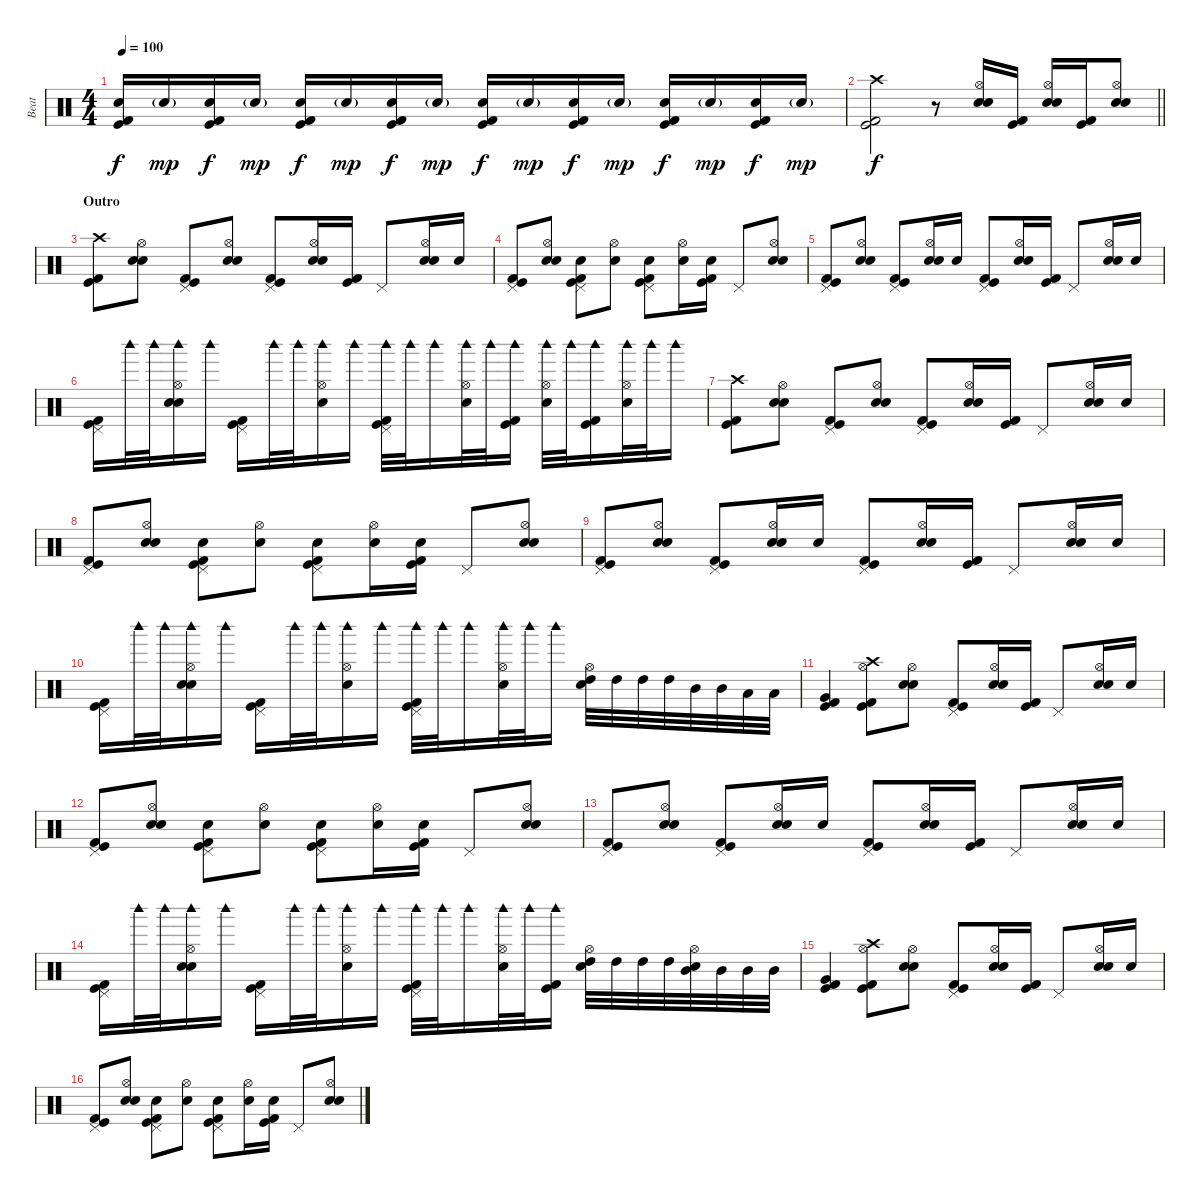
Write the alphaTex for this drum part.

\track ("Beat" "Beat") {instrument percussion}
\staff {score}
\articulation defaults
\ts (4 4)
\tempo 100
\clef neutral
\ks c
("Hand Clap (hit)" "Kick (hit)" "Kick (hit) 2").16{dy f} "Hand Clap (hit)"{g}.16{dy mp} ("Hand Clap (hit)" "Kick (hit)" "Kick (hit) 2").16{dy f} "Hand Clap (hit)"{g}.16{dy mp} ("Hand Clap (hit)" "Kick (hit)" "Kick (hit) 2").16{dy f} "Hand Clap (hit)"{g}.16{dy mp} ("Hand Clap (hit)" "Kick (hit)" "Kick (hit) 2").16{dy f} "Hand Clap (hit)"{g}.16{dy mp} ("Hand Clap (hit)" "Kick (hit)" "Kick (hit) 2").16{dy f} "Hand Clap (hit)"{g}.16{dy mp} ("Hand Clap (hit)" "Kick (hit)" "Kick (hit) 2").16{dy f} "Hand Clap (hit)"{g}.16{dy mp} ("Hand Clap (hit)" "Kick (hit)" "Kick (hit) 2").16{dy f} "Hand Clap (hit)"{g}.16{dy mp} ("Hand Clap (hit)" "Kick (hit)" "Kick (hit) 2").16{dy f} "Hand Clap (hit)"{g}.16{dy mp} |
\barLineRight lightlight
("Crash high (hit)" "Kick (hit)" "Kick (hit) 2").2{dy f} r.8 ("Hi-Hat (open)" "Hand Clap (hit)" "Snare (hit) 2").16 ("Kick (hit)" "Kick (hit) 2").16 ("Hi-Hat (open)" "Hand Clap (hit)" "Snare (hit) 2").16 ("Kick (hit)" "Kick (hit) 2").16 ("Hi-Hat (open)" "Hand Clap (hit)" "Snare (hit) 2").8 |
\section ("" "Outro")
("Crash high (hit)" "Kick (hit)" "Kick (hit) 2").8 ("Hi-Hat (open)" "Hand Clap (hit)" "Snare (hit) 2").8 ("Pedal Hi-Hat (hit)" "Kick (hit)" "Kick (hit) 2").8 ("Hi-Hat (open)" "Hand Clap (hit)" "Snare (hit) 2").8 ("Pedal Hi-Hat (hit)" "Kick (hit)" "Kick (hit) 2").8 ("Hi-Hat (open)" "Hand Clap (hit)" "Snare (hit) 2").16 ("Kick (hit)" "Kick (hit) 2").16 "Pedal Hi-Hat (hit)".8 ("Hi-Hat (open)" "Hand Clap (hit)" "Snare (hit) 2").16 "Hand Clap (hit)".16 |
("Pedal Hi-Hat (hit)" "Kick (hit)" "Kick (hit) 2").8 ("Hi-Hat (open)" "Hand Clap (hit)" "Snare (hit) 2").8 ("Pedal Hi-Hat (hit)" "Hand Clap (hit)" "Kick (hit)" "Kick (hit) 2").8 ("Hi-Hat (open)" "Snare (hit) 2").8 ("Pedal Hi-Hat (hit)" "Hand Clap (hit)" "Kick (hit)" "Kick (hit) 2").8 ("Hi-Hat (open)" "Snare (hit) 2").16 ("Hand Clap (hit)" "Kick (hit)" "Kick (hit) 2").16 "Pedal Hi-Hat (hit)".8 ("Hi-Hat (open)" "Hand Clap (hit)" "Snare (hit) 2").8 |
("Pedal Hi-Hat (hit)" "Kick (hit)" "Kick (hit) 2").8 ("Hi-Hat (open)" "Hand Clap (hit)" "Snare (hit) 2").8 ("Pedal Hi-Hat (hit)" "Kick (hit)" "Kick (hit) 2").8 ("Hi-Hat (open)" "Hand Clap (hit)" "Snare (hit) 2").16 "Hand Clap (hit)".16 ("Pedal Hi-Hat (hit)" "Kick (hit)" "Kick (hit) 2").8 ("Hi-Hat (open)" "Hand Clap (hit)" "Snare (hit) 2").16 ("Kick (hit)" "Kick (hit) 2").16 "Pedal Hi-Hat (hit)".8 ("Hi-Hat (open)" "Hand Clap (hit)" "Snare (hit) 2").16 "Hand Clap (hit)".16 |
("Pedal Hi-Hat (hit)" "Kick (hit)" "Kick (hit) 2").16 "Woodblock high (hit)".32 "Woodblock high (hit)".32 ("Hi-Hat (open)" "Woodblock high (hit)" "Snare (hit) 2" "Hand Clap (hit)").16 "Woodblock high (hit)".16 ("Pedal Hi-Hat (hit)" "Kick (hit)" "Kick (hit) 2").16 "Woodblock high (hit)".32 "Woodblock high (hit)".32 ("Hi-Hat (open)" "Woodblock high (hit)" "Snare (hit) 2").16 "Woodblock high (hit)".16 ("Pedal Hi-Hat (hit)" "Woodblock high (hit)" "Kick (hit)" "Kick (hit) 2").32 "Woodblock high (hit)".32 "Woodblock high (hit)".16 ("Hi-Hat (open)" "Woodblock high (hit)" "Snare (hit) 2").32 "Woodblock high (hit)".32 ("Woodblock high (hit)" "Kick (hit)" "Kick (hit) 2").16 ("Hi-Hat (open)" "Woodblock high (hit)" "Snare (hit) 2").32 "Woodblock high (hit)".32 ("Woodblock high (hit)" "Kick (hit)" "Kick (hit) 2").16 ("Hi-Hat (open)" "Woodblock high (hit)" "Snare (hit) 2").32 "Woodblock high (hit)".32 "Woodblock high (hit)".16 |
("Crash high (hit)" "Kick (hit)" "Kick (hit) 2").8 ("Hi-Hat (open)" "Hand Clap (hit)" "Snare (hit) 2").8 ("Pedal Hi-Hat (hit)" "Kick (hit)" "Kick (hit) 2").8 ("Hi-Hat (open)" "Hand Clap (hit)" "Snare (hit) 2").8 ("Pedal Hi-Hat (hit)" "Kick (hit)" "Kick (hit) 2").8 ("Hi-Hat (open)" "Hand Clap (hit)" "Snare (hit) 2").16 ("Kick (hit)" "Kick (hit) 2").16 "Pedal Hi-Hat (hit)".8 ("Hi-Hat (open)" "Hand Clap (hit)" "Snare (hit) 2").16 "Hand Clap (hit)".16 |
("Pedal Hi-Hat (hit)" "Kick (hit)" "Kick (hit) 2").8 ("Hi-Hat (open)" "Hand Clap (hit)" "Snare (hit) 2").8 ("Pedal Hi-Hat (hit)" "Hand Clap (hit)" "Kick (hit)" "Kick (hit) 2").8 ("Hi-Hat (open)" "Snare (hit) 2").8 ("Pedal Hi-Hat (hit)" "Hand Clap (hit)" "Kick (hit)" "Kick (hit) 2").8 ("Hi-Hat (open)" "Snare (hit) 2").16 ("Hand Clap (hit)" "Kick (hit)" "Kick (hit) 2").16 "Pedal Hi-Hat (hit)".8 ("Hi-Hat (open)" "Hand Clap (hit)" "Snare (hit) 2").8 |
("Pedal Hi-Hat (hit)" "Kick (hit)" "Kick (hit) 2").8 ("Hi-Hat (open)" "Hand Clap (hit)" "Snare (hit) 2").8 ("Pedal Hi-Hat (hit)" "Kick (hit)" "Kick (hit) 2").8 ("Hi-Hat (open)" "Hand Clap (hit)" "Snare (hit) 2").16 "Hand Clap (hit)".16 ("Pedal Hi-Hat (hit)" "Kick (hit)" "Kick (hit) 2").8 ("Hi-Hat (open)" "Hand Clap (hit)" "Snare (hit) 2").16 ("Kick (hit)" "Kick (hit) 2").16 "Pedal Hi-Hat (hit)".8 ("Hi-Hat (open)" "Hand Clap (hit)" "Snare (hit) 2").16 "Hand Clap (hit)".16 |
("Pedal Hi-Hat (hit)" "Kick (hit)" "Kick (hit) 2").16 "Woodblock high (hit)".32 "Woodblock high (hit)".32 ("Hi-Hat (open)" "Woodblock high (hit)" "Snare (hit) 2" "Hand Clap (hit)").16 "Woodblock high (hit)".16 ("Pedal Hi-Hat (hit)" "Kick (hit)" "Kick (hit) 2").16 "Woodblock high (hit)".32 "Woodblock high (hit)".32 ("Hi-Hat (open)" "Woodblock high (hit)" "Snare (hit) 2").16 "Woodblock high (hit)".16 ("Pedal Hi-Hat (hit)" "Woodblock high (hit)" "Kick (hit)" "Kick (hit) 2").32 "Woodblock high (hit)".32 "Woodblock high (hit)".16 ("Hi-Hat (open)" "Woodblock high (hit)" "Snare (hit) 2").32 "Woodblock high (hit)".32 "Woodblock high (hit)".16 ("Hi-Hat (open)" "High Tom (hit)" "Snare (hit) 2").32 "High Tom (hit)".32 "High Tom (hit)".32 "High Tom (hit)".32 "Mid Tom (hit)".32 "Mid Tom (hit)".32 "Low Tom (hit)".32 "Low Tom (hit)".32 |
("Very Low Tom (hit)" "Kick (hit)" "Kick (hit) 2").4 ("Crash high (hit)" "Hi-Hat (open)" "Kick (hit)" "Kick (hit) 2").8 ("Hi-Hat (open)" "Hand Clap (hit)" "Snare (hit) 2").8 ("Pedal Hi-Hat (hit)" "Kick (hit)" "Kick (hit) 2").8 ("Hi-Hat (open)" "Hand Clap (hit)" "Snare (hit) 2").16 ("Kick (hit)" "Kick (hit) 2").16 "Pedal Hi-Hat (hit)".8 ("Hi-Hat (open)" "Hand Clap (hit)" "Snare (hit) 2").16 "Hand Clap (hit)".16 |
("Pedal Hi-Hat (hit)" "Kick (hit)" "Kick (hit) 2").8 ("Hi-Hat (open)" "Hand Clap (hit)" "Snare (hit) 2").8 ("Pedal Hi-Hat (hit)" "Hand Clap (hit)" "Kick (hit)" "Kick (hit) 2").8 ("Hi-Hat (open)" "Snare (hit) 2").8 ("Pedal Hi-Hat (hit)" "Hand Clap (hit)" "Kick (hit)" "Kick (hit) 2").8 ("Hi-Hat (open)" "Snare (hit) 2").16 ("Hand Clap (hit)" "Kick (hit)" "Kick (hit) 2").16 "Pedal Hi-Hat (hit)".8 ("Hi-Hat (open)" "Hand Clap (hit)" "Snare (hit) 2").8 |
("Pedal Hi-Hat (hit)" "Kick (hit)" "Kick (hit) 2").8 ("Hi-Hat (open)" "Hand Clap (hit)" "Snare (hit) 2").8 ("Pedal Hi-Hat (hit)" "Kick (hit)" "Kick (hit) 2").8 ("Hi-Hat (open)" "Hand Clap (hit)" "Snare (hit) 2").16 "Hand Clap (hit)".16 ("Pedal Hi-Hat (hit)" "Kick (hit)" "Kick (hit) 2").8 ("Hi-Hat (open)" "Hand Clap (hit)" "Snare (hit) 2").16 ("Kick (hit)" "Kick (hit) 2").16 "Pedal Hi-Hat (hit)".8 ("Hi-Hat (open)" "Hand Clap (hit)" "Snare (hit) 2").16 "Hand Clap (hit)".16 |
("Pedal Hi-Hat (hit)" "Kick (hit)" "Kick (hit) 2").16 "Woodblock high (hit)".32 "Woodblock high (hit)".32 ("Hi-Hat (open)" "Woodblock high (hit)" "Snare (hit) 2" "Hand Clap (hit)").16 "Woodblock high (hit)".16 ("Pedal Hi-Hat (hit)" "Kick (hit)" "Kick (hit) 2").16 "Woodblock high (hit)".32 "Woodblock high (hit)".32 ("Hi-Hat (open)" "Woodblock high (hit)" "Snare (hit) 2").16 "Woodblock high (hit)".16 ("Pedal Hi-Hat (hit)" "Woodblock high (hit)" "Kick (hit)" "Kick (hit) 2").32 "Woodblock high (hit)".32 "Woodblock high (hit)".16 ("Hi-Hat (open)" "Woodblock high (hit)" "Snare (hit) 2").32 "Woodblock high (hit)".32 ("Woodblock high (hit)" "Kick (hit)" "Kick (hit) 2").16 ("Hi-Hat (open)" "High Tom (hit)" "Snare (hit) 2").32 "High Tom (hit)".32 "High Tom (hit)".32 "High Tom (hit)".32 ("Hi-Hat (open)" "Mid Tom (hit)" "Snare (hit) 2").32 "Mid Tom (hit)".32 "Mid Tom (hit)".32 "Mid Tom (hit)".32 |
("Very Low Tom (hit)" "Kick (hit)" "Kick (hit) 2").4 ("Crash high (hit)" "Hi-Hat (open)" "Kick (hit)" "Kick (hit) 2").8 ("Hi-Hat (open)" "Hand Clap (hit)" "Snare (hit) 2").8 ("Pedal Hi-Hat (hit)" "Kick (hit)" "Kick (hit) 2").8 ("Hi-Hat (open)" "Hand Clap (hit)" "Snare (hit) 2").16 ("Kick (hit)" "Kick (hit) 2").16 "Pedal Hi-Hat (hit)".8 ("Hi-Hat (open)" "Hand Clap (hit)" "Snare (hit) 2").16 "Hand Clap (hit)".16 |
("Pedal Hi-Hat (hit)" "Kick (hit)" "Kick (hit) 2").8 ("Hi-Hat (open)" "Hand Clap (hit)" "Snare (hit) 2").8 ("Pedal Hi-Hat (hit)" "Hand Clap (hit)" "Kick (hit)" "Kick (hit) 2").8 ("Hi-Hat (open)" "Snare (hit) 2").8 ("Pedal Hi-Hat (hit)" "Hand Clap (hit)" "Kick (hit)" "Kick (hit) 2").8 ("Hi-Hat (open)" "Snare (hit) 2").16 ("Hand Clap (hit)" "Kick (hit)" "Kick (hit) 2").16 "Pedal Hi-Hat (hit)".8 ("Hi-Hat (open)" "Hand Clap (hit)" "Snare (hit) 2").8
